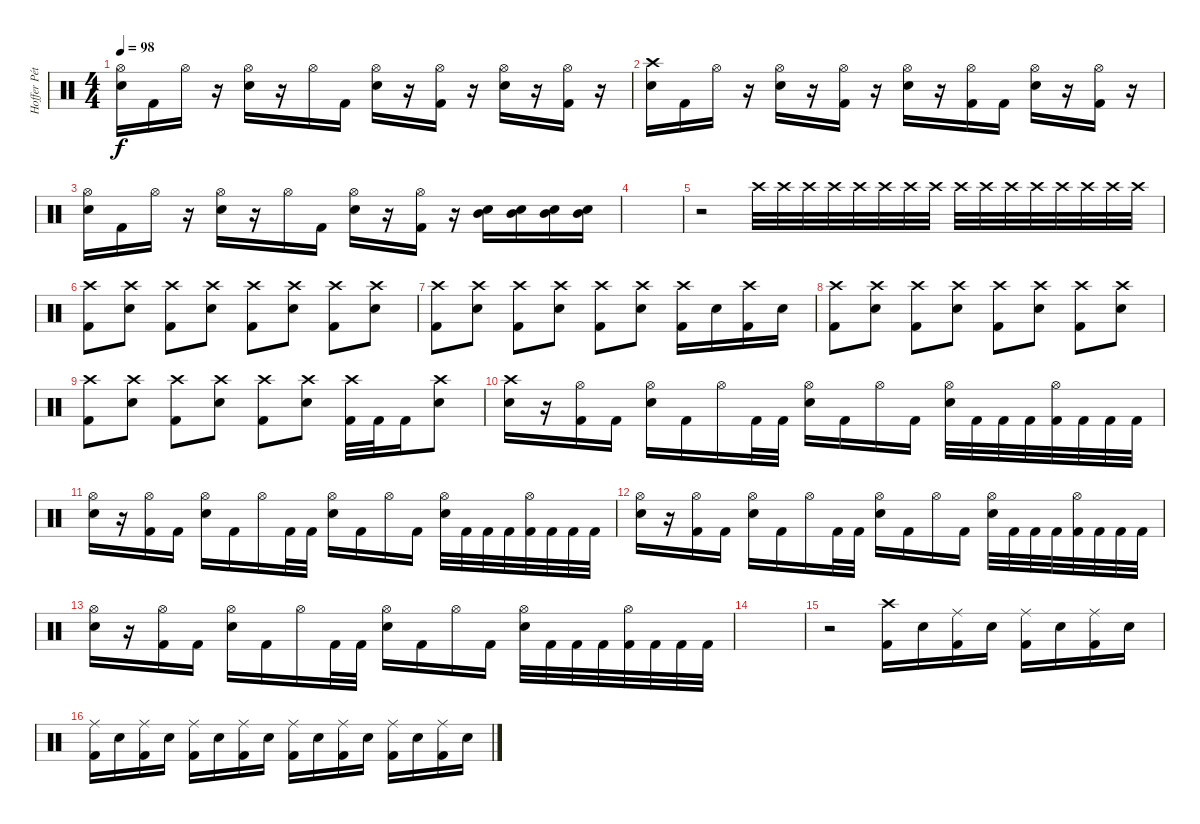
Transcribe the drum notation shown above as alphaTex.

\track ("Hoffer Péter" "Hoffer Pét") {instrument percussion}
\staff {score}
\articulation defaults
\ts (4 4)
\tempo 98
\clef neutral
\ks c
("Hi-Hat (open)" "Electric Snare (hit)").16{dy f} "Kick (hit) 2".16 "Hi-Hat (open)".16 r.16 ("Hi-Hat (open)" "Electric Snare (hit)").16 r.16 "Hi-Hat (open)".16 "Kick (hit) 2".16 ("Hi-Hat (open)" "Electric Snare (hit)").16 r.16 ("Hi-Hat (open)" "Kick (hit) 2").16 r.16 ("Hi-Hat (open)" "Electric Snare (hit)").16 r.16 ("Hi-Hat (open)" "Kick (hit) 2").16 r.16 |
("Crash high (hit)" "Electric Snare (hit)").16 "Kick (hit) 2".16 "Hi-Hat (open)".16 r.16 ("Hi-Hat (open)" "Electric Snare (hit)").16 r.16 ("Hi-Hat (open)" "Kick (hit) 2").16 r.16 ("Hi-Hat (open)" "Electric Snare (hit)").16 r.16 ("Hi-Hat (open)" "Kick (hit) 2").16 "Kick (hit) 2".16 ("Hi-Hat (open)" "Electric Snare (hit)").16 r.16 ("Hi-Hat (open)" "Kick (hit) 2").16 r.16 |
("Hi-Hat (open)" "Electric Snare (hit)").16 "Kick (hit) 2".16 "Hi-Hat (open)".16 r.16 ("Hi-Hat (open)" "Electric Snare (hit)").16 r.16 "Hi-Hat (open)".16 "Kick (hit) 2".16 ("Hi-Hat (open)" "Electric Snare (hit)").16 r.16 ("Hi-Hat (open)" "Kick (hit) 2").16 r.16 ("Mid Tom (hit)" "Electric Snare (hit)").16 ("Mid Tom (hit)" "Electric Snare (hit)").16 ("Mid Tom (hit)" "Electric Snare (hit)").16 ("Mid Tom (hit)" "Electric Snare (hit)").16 |
|
r.2 "Crash high (hit)".32{volume 5} "Crash high (hit)".32 "Crash high (hit)".32 "Crash high (hit)".32{volume 6} "Crash high (hit)".32 "Crash high (hit)".32 "Crash high (hit)".32{volume 7} "Crash high (hit)".32 "Crash high (hit)".32 "Crash high (hit)".32{volume 9} "Crash high (hit)".32 "Crash high (hit)".32 "Crash high (hit)".32{volume 11} "Crash high (hit)".32 "Crash high (hit)".32 "Crash high (hit)".32 |
("Crash high (hit)" "Kick (hit) 2").8 ("Crash high (hit)" "Electric Snare (hit)").8 ("Crash high (hit)" "Kick (hit) 2").8 ("Crash high (hit)" "Electric Snare (hit)").8 ("Crash high (hit)" "Kick (hit) 2").8 ("Crash high (hit)" "Electric Snare (hit)").8 ("Crash high (hit)" "Kick (hit) 2").8 ("Crash high (hit)" "Electric Snare (hit)").8 |
("Crash high (hit)" "Kick (hit) 2").8 ("Crash high (hit)" "Electric Snare (hit)").8 ("Crash high (hit)" "Kick (hit) 2").8 ("Crash high (hit)" "Electric Snare (hit)").8 ("Crash high (hit)" "Kick (hit) 2").8 ("Crash high (hit)" "Electric Snare (hit)").8 ("Crash high (hit)" "Kick (hit) 2").16 "Electric Snare (hit)".16 ("Crash high (hit)" "Kick (hit) 2").16 "Electric Snare (hit)".16 |
("Crash high (hit)" "Kick (hit) 2").8 ("Crash high (hit)" "Electric Snare (hit)").8 ("Crash high (hit)" "Kick (hit) 2").8 ("Crash high (hit)" "Electric Snare (hit)").8 ("Crash high (hit)" "Kick (hit) 2").8 ("Crash high (hit)" "Electric Snare (hit)").8 ("Crash high (hit)" "Kick (hit) 2").8 ("Crash high (hit)" "Electric Snare (hit)").8 |
("Crash high (hit)" "Kick (hit) 2").8 ("Crash high (hit)" "Electric Snare (hit)").8 ("Crash high (hit)" "Kick (hit) 2").8 ("Crash high (hit)" "Electric Snare (hit)").8 ("Crash high (hit)" "Kick (hit) 2").8 ("Crash high (hit)" "Electric Snare (hit)").8 ("Crash high (hit)" "Kick (hit) 2").32 "Kick (hit) 2".32 "Kick (hit) 2".16 ("Crash high (hit)" "Electric Snare (hit)").8 |
("Crash high (hit)" "Electric Snare (hit)").16 r.16 ("Hi-Hat (open)" "Kick (hit) 2").16 "Kick (hit) 2".16 ("Hi-Hat (open)" "Electric Snare (hit)").16 "Kick (hit) 2".16 "Hi-Hat (open)".16 "Kick (hit) 2".32 "Kick (hit) 2".32 ("Hi-Hat (open)" "Electric Snare (hit)").16 "Kick (hit) 2".16 "Hi-Hat (open)".16 "Kick (hit) 2".16 ("Hi-Hat (open)" "Electric Snare (hit)").32 "Kick (hit) 2".32 "Kick (hit) 2".32 "Kick (hit) 2".32 ("Hi-Hat (open)" "Kick (hit) 2").32 "Kick (hit) 2".32 "Kick (hit) 2".32 "Kick (hit) 2".32 |
("Hi-Hat (open)" "Electric Snare (hit)").16 r.16 ("Hi-Hat (open)" "Kick (hit) 2").16 "Kick (hit) 2".16 ("Hi-Hat (open)" "Electric Snare (hit)").16 "Kick (hit) 2".16 "Hi-Hat (open)".16 "Kick (hit) 2".32 "Kick (hit) 2".32 ("Hi-Hat (open)" "Electric Snare (hit)").16 "Kick (hit) 2".16 "Hi-Hat (open)".16 "Kick (hit) 2".16 ("Hi-Hat (open)" "Electric Snare (hit)").32 "Kick (hit) 2".32 "Kick (hit) 2".32 "Kick (hit) 2".32 ("Hi-Hat (open)" "Kick (hit) 2").32 "Kick (hit) 2".32 "Kick (hit) 2".32 "Kick (hit) 2".32 |
("Hi-Hat (open)" "Electric Snare (hit)").16 r.16 ("Hi-Hat (open)" "Kick (hit) 2").16 "Kick (hit) 2".16 ("Hi-Hat (open)" "Electric Snare (hit)").16 "Kick (hit) 2".16 "Hi-Hat (open)".16 "Kick (hit) 2".32 "Kick (hit) 2".32 ("Hi-Hat (open)" "Electric Snare (hit)").16 "Kick (hit) 2".16 "Hi-Hat (open)".16 "Kick (hit) 2".16 ("Hi-Hat (open)" "Electric Snare (hit)").32 "Kick (hit) 2".32 "Kick (hit) 2".32 "Kick (hit) 2".32 ("Hi-Hat (open)" "Kick (hit) 2").32 "Kick (hit) 2".32 "Kick (hit) 2".32 "Kick (hit) 2".32 |
("Hi-Hat (open)" "Electric Snare (hit)").16 r.16 ("Hi-Hat (open)" "Kick (hit) 2").16 "Kick (hit) 2".16 ("Hi-Hat (open)" "Electric Snare (hit)").16 "Kick (hit) 2".16 "Hi-Hat (open)".16 "Kick (hit) 2".32 "Kick (hit) 2".32 ("Hi-Hat (open)" "Electric Snare (hit)").16 "Kick (hit) 2".16 "Hi-Hat (open)".16 "Kick (hit) 2".16 ("Hi-Hat (open)" "Electric Snare (hit)").32 "Kick (hit) 2".32 "Kick (hit) 2".32 "Kick (hit) 2".32 ("Hi-Hat (open)" "Kick (hit) 2").32 "Kick (hit) 2".32 "Kick (hit) 2".32 "Kick (hit) 2".32 |
|
r.2 ("Crash high (hit)" "Kick (hit) 2").16 "Electric Snare (hit)".16 ("Ride (middle)" "Kick (hit) 2").16 "Electric Snare (hit)".16 ("Ride (middle)" "Kick (hit) 2").16 "Electric Snare (hit)".16 ("Ride (middle)" "Kick (hit) 2").16 "Electric Snare (hit)".16 |
("Ride (middle)" "Kick (hit) 2").16 "Electric Snare (hit)".16 ("Ride (middle)" "Kick (hit) 2").16 "Electric Snare (hit)".16 ("Ride (middle)" "Kick (hit) 2").16 "Electric Snare (hit)".16 ("Ride (middle)" "Kick (hit) 2").16 "Electric Snare (hit)".16 ("Ride (middle)" "Kick (hit) 2").16 "Electric Snare (hit)".16 ("Ride (middle)" "Kick (hit) 2").16 "Electric Snare (hit)".16 ("Ride (middle)" "Kick (hit) 2").16 "Electric Snare (hit)".16 ("Ride (middle)" "Kick (hit) 2").16 "Electric Snare (hit)".16
